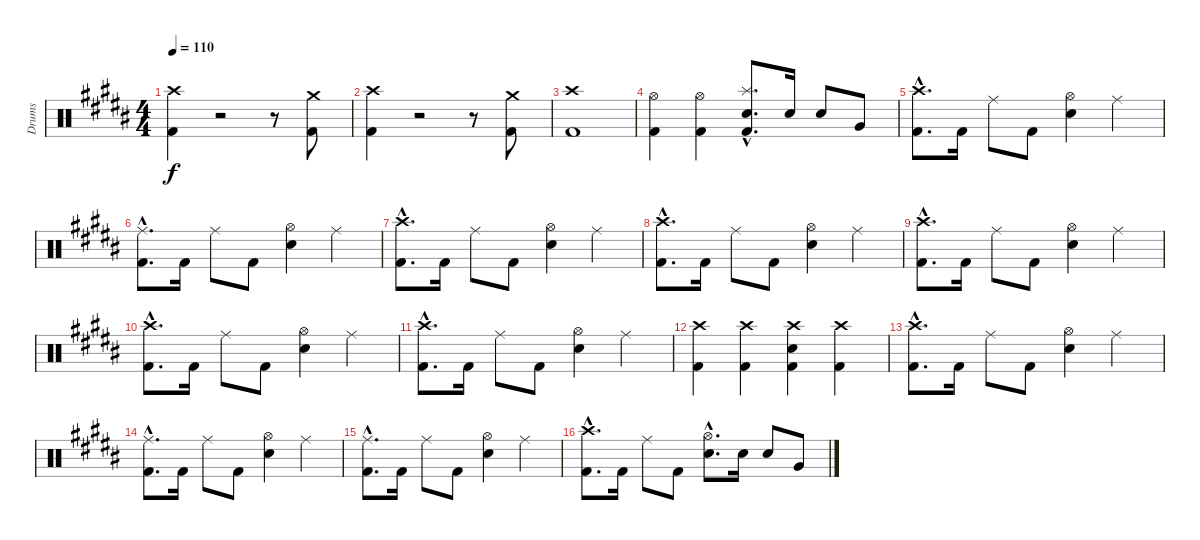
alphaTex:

\track ("Drums" "Drums") {instrument percussion}
\staff {score}
\articulation defaults
\ts (4 4)
\section ("" "")
\tempo 110
\clef neutral
\ks b
("Crash high (hit)" "Kick (hit) 2").4{dy f} r.2 r.8 ("Crash medium (hit)" "Kick (hit) 2").8 |
("Crash high (hit)" "Kick (hit) 2").4 r.2 r.8 ("Crash medium (hit)" "Kick (hit) 2").8 |
("Crash high (hit)" "Kick (hit) 2").1 |
("Hi-Hat (open)" "Kick (hit) 2").4 ("Hi-Hat (open)" "Kick (hit) 2").4 ("Splash (hit)"{hac} "Electric Snare (hit)"{hac} "Kick (hit) 2"{hac}).8{d} "Electric Snare (hit)".16 "Electric Snare (hit)".8 "Very Low Tom (hit)".8 |
("Crash high (hit)"{hac} "Kick (hit) 2"{hac}).8{d} "Kick (hit) 2".16 "Ride (middle)".8 "Kick (hit) 2".8 ("Hi-Hat (open)" "Electric Snare (hit)").4 "Ride (middle)".4 |
("Ride (middle)"{hac} "Kick (hit) 2"{hac}).8{d} "Kick (hit) 2".16 "Ride (middle)".8 "Kick (hit) 2".8 ("Hi-Hat (open)" "Electric Snare (hit)").4 "Ride (middle)".4 |
("Crash high (hit)"{hac} "Kick (hit) 2"{hac}).8{d} "Kick (hit) 2".16 "Ride (middle)".8 "Kick (hit) 2".8 ("Hi-Hat (open)" "Electric Snare (hit)").4 "Ride (middle)".4 |
("Crash high (hit)"{hac} "Kick (hit) 2"{hac}).8{d} "Kick (hit) 2".16 "Ride (middle)".8 "Kick (hit) 2".8 ("Hi-Hat (open)" "Electric Snare (hit)").4 "Ride (middle)".4 |
("Crash high (hit)"{hac} "Kick (hit) 2"{hac}).8{d} "Kick (hit) 2".16 "Ride (middle)".8 "Kick (hit) 2".8 ("Hi-Hat (open)" "Electric Snare (hit)").4 "Ride (middle)".4 |
("Crash high (hit)"{hac} "Kick (hit) 2"{hac}).8{d} "Kick (hit) 2".16 "Ride (middle)".8 "Kick (hit) 2".8 ("Hi-Hat (open)" "Electric Snare (hit)").4 "Ride (middle)".4 |
("Crash high (hit)"{hac} "Kick (hit) 2"{hac}).8{d} "Kick (hit) 2".16 "Ride (middle)".8 "Kick (hit) 2".8 ("Hi-Hat (open)" "Electric Snare (hit)").4 "Ride (middle)".4 |
("Crash high (hit)" "Kick (hit) 2").4 ("Crash high (hit)" "Kick (hit) 2").4 ("Crash high (hit)" "Electric Snare (hit)" "Kick (hit) 2").4 ("Crash high (hit)" "Kick (hit) 2").4 |
("Crash high (hit)"{hac} "Kick (hit) 2"{hac}).8{d} "Kick (hit) 2".16 "Ride (middle)".8 "Kick (hit) 2".8 ("Hi-Hat (open)" "Electric Snare (hit)").4 "Ride (middle)".4 |
("Ride (middle)"{hac} "Kick (hit) 2"{hac}).8{d} "Kick (hit) 2".16 "Ride (middle)".8 "Kick (hit) 2".8 ("Hi-Hat (open)" "Electric Snare (hit)").4 "Ride (middle)".4 |
("Ride (middle)"{hac} "Kick (hit) 2"{hac}).8{d} "Kick (hit) 2".16 "Ride (middle)".8 "Kick (hit) 2".8 ("Hi-Hat (open)" "Electric Snare (hit)").4 "Ride (middle)".4 |
("Crash high (hit)"{hac} "Kick (hit) 2"{hac}).8{d} "Kick (hit) 2".16 "Ride (middle)".8 "Kick (hit) 2".8 ("Hi-Hat (open)"{hac} "Electric Snare (hit)"{hac}).8{d} "Electric Snare (hit)".16 "Electric Snare (hit)".8 "Very Low Tom (hit)".8
